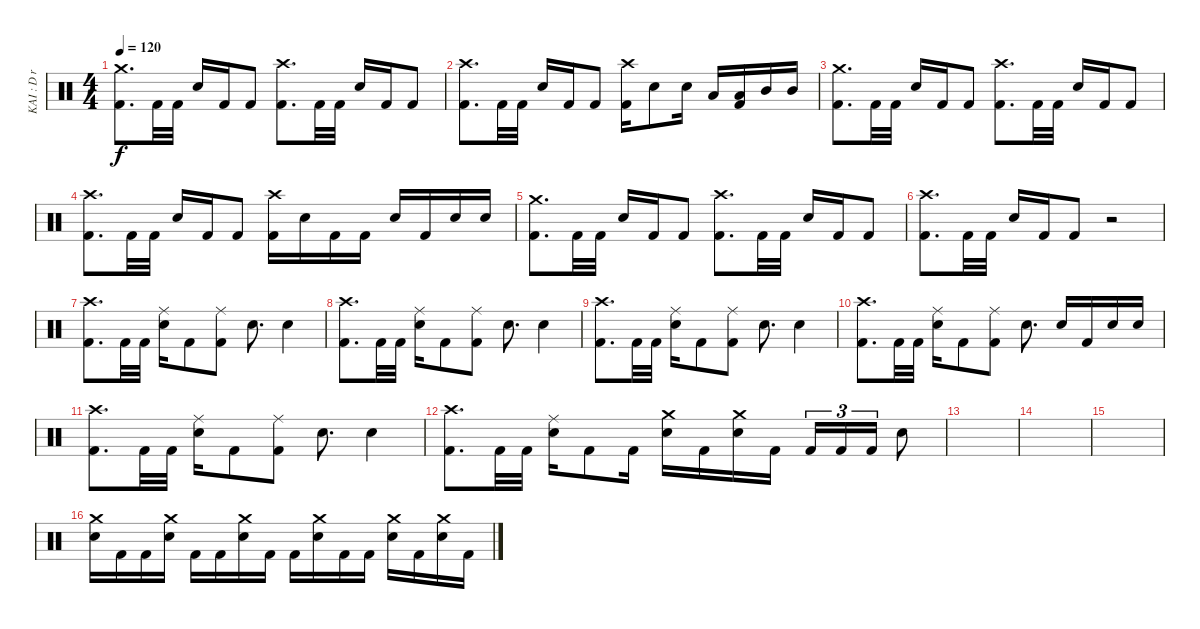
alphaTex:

\track ("KAI : D r u m S" "KAI : D r ") {instrument percussion}
\staff {score}
\articulation defaults
\ts (4 4)
\tempo 120
\clef neutral
\ks c
("Crash medium (hit)" "Kick (hit) 2").8{d dy f} "Kick (hit) 2".32 "Kick (hit) 2".32 "Electric Snare (hit)".16 "Kick (hit) 2".16 "Kick (hit) 2".8 ("Crash high (hit)" "Kick (hit) 2").8{d} "Kick (hit) 2".32 "Kick (hit) 2".32 "Electric Snare (hit)".16 "Kick (hit) 2".16 "Kick (hit) 2".8 |
("Crash high (hit)" "Kick (hit) 2").8{d} "Kick (hit) 2".32 "Kick (hit) 2".32 "Electric Snare (hit)".16 "Kick (hit) 2".16 "Kick (hit) 2".8 ("Crash high (hit)" "Kick (hit) 2").16 "Electric Snare (hit)".8 "Electric Snare (hit)".16 "Low Tom (hit)".16 ("Low Tom (hit)" "Kick (hit) 2").16 "Mid Tom (hit)".16 "Mid Tom (hit)".16 |
("Crash medium (hit)" "Kick (hit) 2").8{d} "Kick (hit) 2".32 "Kick (hit) 2".32 "Electric Snare (hit)".16 "Kick (hit) 2".16 "Kick (hit) 2".8 ("Crash high (hit)" "Kick (hit) 2").8{d} "Kick (hit) 2".32 "Kick (hit) 2".32 "Electric Snare (hit)".16 "Kick (hit) 2".16 "Kick (hit) 2".8 |
("Crash high (hit)" "Kick (hit) 2").8{d} "Kick (hit) 2".32 "Kick (hit) 2".32 "Electric Snare (hit)".16 "Kick (hit) 2".16 "Kick (hit) 2".8 ("Crash high (hit)" "Kick (hit) 2").16 "Electric Snare (hit)".16 "Kick (hit) 2".16 "Kick (hit) 2".16 "Electric Snare (hit)".16 "Kick (hit) 2".16 "Electric Snare (hit)".16 "Electric Snare (hit)".16 |
("Crash medium (hit)" "Kick (hit) 2").8{d} "Kick (hit) 2".32 "Kick (hit) 2".32 "Electric Snare (hit)".16 "Kick (hit) 2".16 "Kick (hit) 2".8 ("Crash high (hit)" "Kick (hit) 2").8{d} "Kick (hit) 2".32 "Kick (hit) 2".32 "Electric Snare (hit)".16 "Kick (hit) 2".16 "Kick (hit) 2".8 |
("Crash high (hit)" "Kick (hit) 2").8{d} "Kick (hit) 2".32 "Kick (hit) 2".32 "Electric Snare (hit)".16 "Kick (hit) 2".16 "Kick (hit) 2".8 r.2 |
("Crash high (hit)" "Kick (hit) 2").8{d} "Kick (hit) 2".32 "Kick (hit) 2".32 ("Ride (middle)" "Electric Snare (hit)").16 "Kick (hit) 2".8 ("Ride (middle)" "Kick (hit) 2").8 "Electric Snare (hit)".8{d} "Electric Snare (hit)".4 |
("Crash high (hit)" "Kick (hit) 2").8{d} "Kick (hit) 2".32 "Kick (hit) 2".32 ("Ride (middle)" "Electric Snare (hit)").16 "Kick (hit) 2".8 ("Ride (middle)" "Kick (hit) 2").8 "Electric Snare (hit)".8{d} "Electric Snare (hit)".4 |
("Crash high (hit)" "Kick (hit) 2").8{d} "Kick (hit) 2".32 "Kick (hit) 2".32 ("Ride (middle)" "Electric Snare (hit)").16 "Kick (hit) 2".8 ("Ride (middle)" "Kick (hit) 2").8 "Electric Snare (hit)".8{d} "Electric Snare (hit)".4 |
("Crash high (hit)" "Kick (hit) 2").8{d} "Kick (hit) 2".32 "Kick (hit) 2".32 ("Ride (middle)" "Electric Snare (hit)").16 "Kick (hit) 2".8 ("Ride (middle)" "Kick (hit) 2").8 "Electric Snare (hit)".8{d} "Electric Snare (hit)".16 "Kick (hit) 2".16 "Electric Snare (hit)".16 "Electric Snare (hit)".16 |
("Crash high (hit)" "Kick (hit) 2").8{d} "Kick (hit) 2".32 "Kick (hit) 2".32 ("Ride (middle)" "Electric Snare (hit)").16 "Kick (hit) 2".8 ("Ride (middle)" "Kick (hit) 2").8 "Electric Snare (hit)".8{d} "Electric Snare (hit)".4 |
("Crash high (hit)" "Kick (hit) 2").8{d} "Kick (hit) 2".32 "Kick (hit) 2".32 ("Ride (middle)" "Electric Snare (hit)").16 "Kick (hit) 2".8 "Kick (hit) 2".16 ("Crash medium (hit)" "Electric Snare (hit)").16 "Kick (hit) 2".16 ("Crash medium (hit)" "Electric Snare (hit)").16 "Kick (hit) 2".16 "Kick (hit) 2".16{tu (3 2)} "Kick (hit) 2".16{tu (3 2)} "Kick (hit) 2".16{tu (3 2)} "Electric Snare (hit)".8 |
|
|
|
("Crash medium (hit)" "Electric Snare (hit)").16 "Kick (hit) 2".16 "Kick (hit) 2".16 ("Crash medium (hit)" "Electric Snare (hit)").16 "Kick (hit) 2".16 "Kick (hit) 2".16 ("Crash medium (hit)" "Electric Snare (hit)").16 "Kick (hit) 2".16 "Kick (hit) 2".16 ("Crash medium (hit)" "Electric Snare (hit)").16 "Kick (hit) 2".16 "Kick (hit) 2".16 ("Crash medium (hit)" "Electric Snare (hit)").16 "Kick (hit) 2".16 ("Crash medium (hit)" "Electric Snare (hit)").16 "Kick (hit) 2".16
